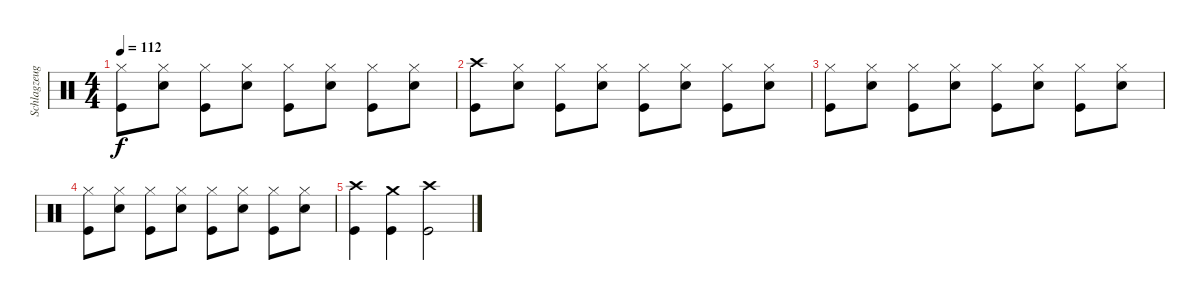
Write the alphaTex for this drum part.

\track ("Schlagzeug" "Schlagzeug") {instrument percussion}
\staff {score}
\articulation defaults
\ts (4 4)
\tempo 112
\clef neutral
\ks c
("Hi-Hat (closed)" "Kick (hit)").8{dy f} ("Hi-Hat (closed)" "Snare (hit) 2").8 ("Hi-Hat (closed)" "Kick (hit)").8 ("Hi-Hat (closed)" "Snare (hit) 2").8 ("Hi-Hat (closed)" "Kick (hit)").8 ("Hi-Hat (closed)" "Snare (hit) 2").8 ("Hi-Hat (closed)" "Kick (hit)").8 ("Hi-Hat (closed)" "Snare (hit) 2").8 |
("Crash high (hit)" "Kick (hit)").8 ("Hi-Hat (closed)" "Snare (hit) 2").8 ("Hi-Hat (closed)" "Kick (hit)").8 ("Hi-Hat (closed)" "Snare (hit) 2").8 ("Hi-Hat (closed)" "Kick (hit)").8 ("Hi-Hat (closed)" "Snare (hit) 2").8 ("Hi-Hat (closed)" "Kick (hit)").8 ("Hi-Hat (closed)" "Snare (hit) 2").8 |
("Hi-Hat (closed)" "Kick (hit)").8 ("Hi-Hat (closed)" "Snare (hit) 2").8 ("Hi-Hat (closed)" "Kick (hit)").8 ("Hi-Hat (closed)" "Snare (hit) 2").8 ("Hi-Hat (closed)" "Kick (hit)").8 ("Hi-Hat (closed)" "Snare (hit) 2").8 ("Hi-Hat (closed)" "Kick (hit)").8 ("Hi-Hat (closed)" "Snare (hit) 2").8 |
("Hi-Hat (closed)" "Kick (hit)").8 ("Hi-Hat (closed)" "Snare (hit) 2").8 ("Hi-Hat (closed)" "Kick (hit)").8 ("Hi-Hat (closed)" "Snare (hit) 2").8 ("Hi-Hat (closed)" "Kick (hit)").8 ("Hi-Hat (closed)" "Snare (hit) 2").8 ("Hi-Hat (closed)" "Kick (hit)").8 ("Hi-Hat (closed)" "Snare (hit) 2").8 |
("Crash high (hit)" "Kick (hit)").4 ("Crash medium (hit)" "Kick (hit)").4 ("Crash high (hit)" "Kick (hit)").2
